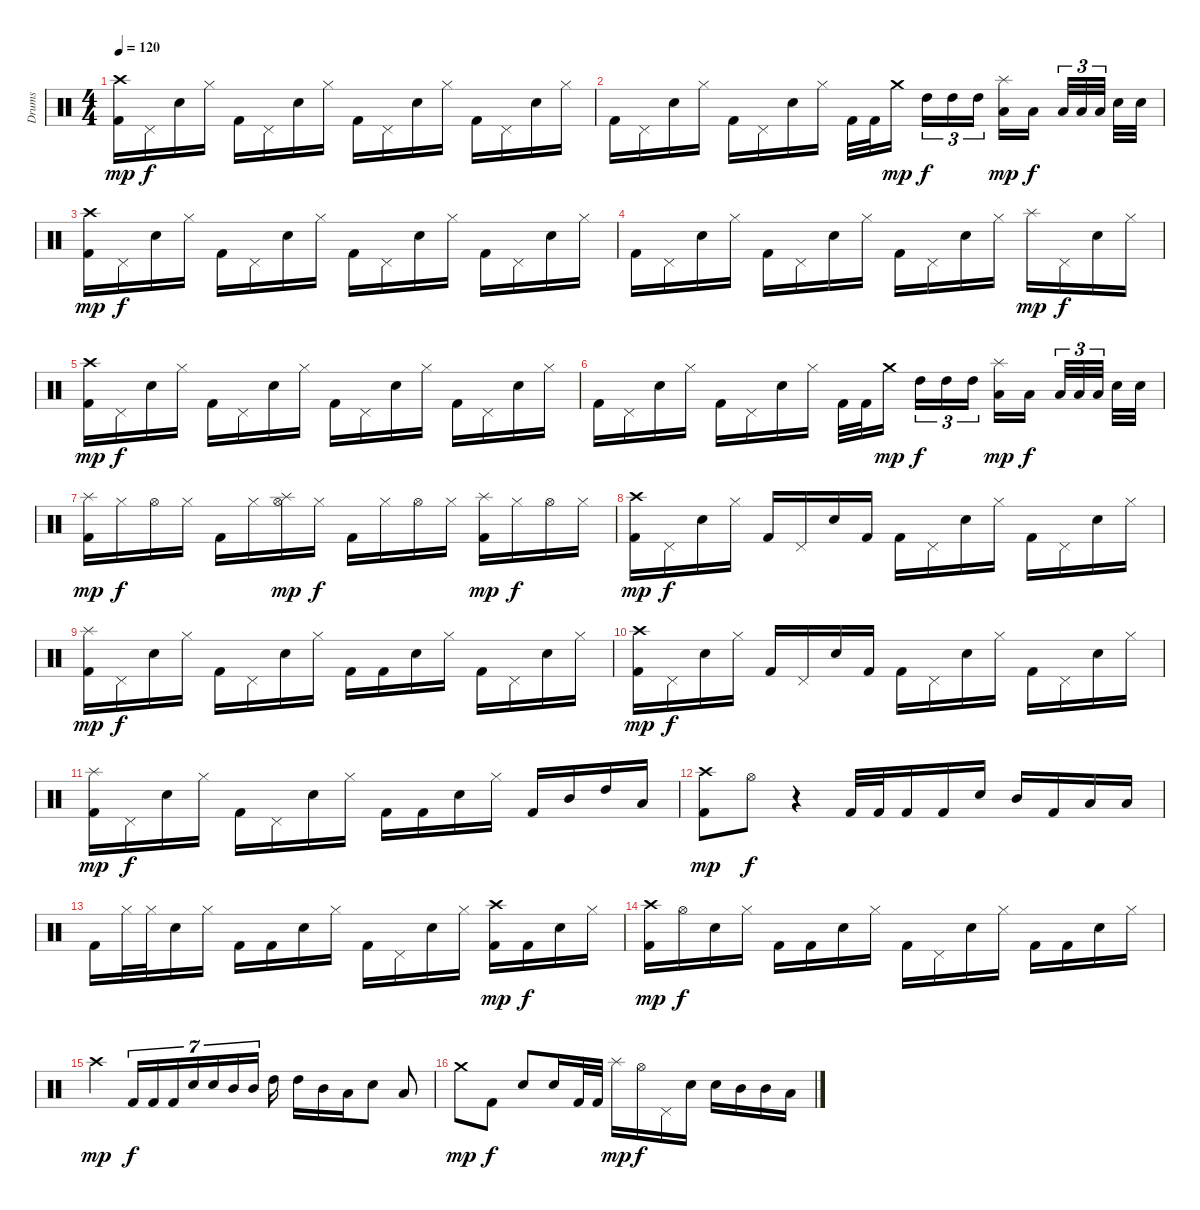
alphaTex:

\track ("Drums" "Drums") {instrument percussion}
\staff {score}
\articulation defaults
\ts (4 4)
\tempo 120
\clef neutral
\ks c
("Kick (hit) 2" "Crash high (hit)").16{dy mp} "Pedal Hi-Hat (hit)".16{dy f} "Electric Snare (hit)".16 "Hi-Hat (closed)".16 "Kick (hit) 2".16 "Pedal Hi-Hat (hit)".16 "Electric Snare (hit)".16 "Hi-Hat (closed)".16 "Kick (hit) 2".16 "Pedal Hi-Hat (hit)".16 "Electric Snare (hit)".16 "Hi-Hat (closed)".16 "Kick (hit) 2".16 "Pedal Hi-Hat (hit)".16 "Electric Snare (hit)".16 "Hi-Hat (closed)".16 |
"Kick (hit) 2".16 "Pedal Hi-Hat (hit)".16 "Electric Snare (hit)".16 "Hi-Hat (closed)".16 "Kick (hit) 2".16 "Pedal Hi-Hat (hit)".16 "Electric Snare (hit)".16 "Hi-Hat (closed)".16 "Kick (hit) 2".32 "Kick (hit) 2".32 "Crash medium (hit)".16{dy mp} "High Tom (hit)".16{tu (3 2) dy f} "High Tom (hit)".16{tu (3 2)} "High Tom (hit)".16{tu (3 2)} ("Low Tom (hit)" "Splash (hit)").16{dy mp} "Low Tom (hit)".16{dy f} "Low Floor Tom (hit)".32{tu (3 2)} "Low Floor Tom (hit)".32{tu (3 2)} "Low Floor Tom (hit)".32{tu (3 2)} "Electric Snare (hit)".32 "Electric Snare (hit)".32 |
("Kick (hit) 2" "Crash high (hit)").16{dy mp} "Pedal Hi-Hat (hit)".16{dy f} "Electric Snare (hit)".16 "Hi-Hat (closed)".16 "Kick (hit) 2".16 "Pedal Hi-Hat (hit)".16 "Electric Snare (hit)".16 "Hi-Hat (closed)".16 "Kick (hit) 2".16 "Pedal Hi-Hat (hit)".16 "Electric Snare (hit)".16 "Hi-Hat (closed)".16 "Kick (hit) 2".16 "Pedal Hi-Hat (hit)".16 "Electric Snare (hit)".16 "Hi-Hat (closed)".16 |
"Kick (hit) 2".16 "Pedal Hi-Hat (hit)".16 "Electric Snare (hit)".16 "Hi-Hat (closed)".16 "Kick (hit) 2".16 "Pedal Hi-Hat (hit)".16 "Electric Snare (hit)".16 "Hi-Hat (closed)".16 "Kick (hit) 2".16 "Pedal Hi-Hat (hit)".16 "Electric Snare (hit)".16 "Hi-Hat (closed)".16 "Splash (hit)".16{dy mp} "Pedal Hi-Hat (hit)".16{dy f} "Electric Snare (hit)".16 "Hi-Hat (closed)".16 |
("Kick (hit) 2" "Crash high (hit)").16{dy mp} "Pedal Hi-Hat (hit)".16{dy f} "Electric Snare (hit)".16 "Hi-Hat (closed)".16 "Kick (hit) 2".16 "Pedal Hi-Hat (hit)".16 "Electric Snare (hit)".16 "Hi-Hat (closed)".16 "Kick (hit) 2".16 "Pedal Hi-Hat (hit)".16 "Electric Snare (hit)".16 "Hi-Hat (closed)".16 "Kick (hit) 2".16 "Pedal Hi-Hat (hit)".16 "Electric Snare (hit)".16 "Hi-Hat (closed)".16 |
"Kick (hit) 2".16 "Pedal Hi-Hat (hit)".16 "Electric Snare (hit)".16 "Hi-Hat (closed)".16 "Kick (hit) 2".16 "Pedal Hi-Hat (hit)".16 "Electric Snare (hit)".16 "Hi-Hat (closed)".16 "Kick (hit) 2".32 "Kick (hit) 2".32 "Crash medium (hit)".16{dy mp} "High Tom (hit)".16{tu (3 2) dy f} "High Tom (hit)".16{tu (3 2)} "High Tom (hit)".16{tu (3 2)} ("Low Tom (hit)" "Splash (hit)").16{dy mp} "Low Tom (hit)".16{dy f} "Low Floor Tom (hit)".32{tu (3 2)} "Low Floor Tom (hit)".32{tu (3 2)} "Low Floor Tom (hit)".32{tu (3 2)} "Electric Snare (hit)".32 "Electric Snare (hit)".32 |
("Kick (hit) 2" "Splash (hit)").16{dy mp} "Hi-Hat (closed)".16{dy f} "Hi-Hat (open)".16 "Hi-Hat (closed)".16 "Kick (hit) 2".16 "Hi-Hat (closed)".16 ("Hi-Hat (open)" "Splash (hit)").16{dy mp} "Hi-Hat (closed)".16{dy f} "Kick (hit) 2".16 "Hi-Hat (closed)".16 "Hi-Hat (open)".16 "Hi-Hat (closed)".16 ("Kick (hit) 2" "Splash (hit)").16{dy mp} "Hi-Hat (closed)".16{dy f} "Hi-Hat (open)".16 "Hi-Hat (closed)".16 |
("Kick (hit) 2" "Crash high (hit)").16{dy mp} "Pedal Hi-Hat (hit)".16{dy f} "Electric Snare (hit)".16 "Hi-Hat (closed)".16 "Kick (hit) 2".16 "Pedal Hi-Hat (hit)".16 "Electric Snare (hit)".16 "Kick (hit) 2".16 "Kick (hit) 2".16 "Pedal Hi-Hat (hit)".16 "Electric Snare (hit)".16 "Hi-Hat (closed)".16 "Kick (hit) 2".16 "Pedal Hi-Hat (hit)".16 "Electric Snare (hit)".16 "Hi-Hat (closed)".16 |
("Kick (hit) 2" "Splash (hit)").16{dy mp} "Pedal Hi-Hat (hit)".16{dy f} "Electric Snare (hit)".16 "Hi-Hat (closed)".16 "Kick (hit) 2".16 "Pedal Hi-Hat (hit)".16 "Electric Snare (hit)".16 "Hi-Hat (closed)".16 "Kick (hit) 2".16 "Kick (hit) 2".16 "Electric Snare (hit)".16 "Hi-Hat (closed)".16 "Kick (hit) 2".16 "Pedal Hi-Hat (hit)".16 "Electric Snare (hit)".16 "Hi-Hat (closed)".16 |
("Kick (hit) 2" "Crash high (hit)").16{dy mp} "Pedal Hi-Hat (hit)".16{dy f} "Electric Snare (hit)".16 "Hi-Hat (closed)".16 "Kick (hit) 2".16 "Pedal Hi-Hat (hit)".16 "Electric Snare (hit)".16 "Kick (hit) 2".16 "Kick (hit) 2".16 "Pedal Hi-Hat (hit)".16 "Electric Snare (hit)".16 "Hi-Hat (closed)".16 "Kick (hit) 2".16 "Pedal Hi-Hat (hit)".16 "Electric Snare (hit)".16 "Hi-Hat (closed)".16 |
("Kick (hit) 2" "Splash (hit)").16{dy mp} "Pedal Hi-Hat (hit)".16{dy f} "Electric Snare (hit)".16 "Hi-Hat (closed)".16 "Kick (hit) 2".16 "Pedal Hi-Hat (hit)".16 "Electric Snare (hit)".16 "Hi-Hat (closed)".16 "Kick (hit) 2".16 "Kick (hit) 2".16 "Electric Snare (hit)".16 "Hi-Hat (closed)".16 "Kick (hit) 2".16 "Mid Tom (hit)".16 "High Tom (hit)".16 "Low Tom (hit)".16 |
("Kick (hit) 2" "Crash high (hit)").8{dy mp} "Hi-Hat (open)".8{dy f} r.4 "Kick (hit) 2".32 "Kick (hit) 2".32 "Kick (hit) 2".16 "Kick (hit) 2".16 "Electric Snare (hit)".16 "Mid Tom (hit)".16 "Kick (hit) 2".16 "Low Tom (hit)".16 "Low Tom (hit)".16 |
"Kick (hit) 2".16 "Hi-Hat (closed)".32 "Hi-Hat (closed)".32 "Electric Snare (hit)".16 "Hi-Hat (closed)".16 "Kick (hit) 2".16 "Kick (hit) 2".16 "Electric Snare (hit)".16 "Hi-Hat (closed)".16 "Kick (hit) 2".16 "Pedal Hi-Hat (hit)".16 "Electric Snare (hit)".16 "Hi-Hat (closed)".16 ("Kick (hit) 2" "Crash high (hit)").16{dy mp} "Kick (hit) 2".16{dy f} "Electric Snare (hit)".16 "Hi-Hat (closed)".16 |
("Kick (hit) 2" "Crash high (hit)").16{dy mp} "Hi-Hat (open)".16{dy f} "Electric Snare (hit)".16 "Hi-Hat (closed)".16 "Kick (hit) 2".16 "Kick (hit) 2".16 "Electric Snare (hit)".16 "Hi-Hat (closed)".16 "Kick (hit) 2".16 "Pedal Hi-Hat (hit)".16 "Electric Snare (hit)".16 "Hi-Hat (closed)".16 "Kick (hit) 2".16 "Kick (hit) 2".16 "Electric Snare (hit)".16 "Hi-Hat (closed)".16 |
"Crash high (hit)".4{dy mp} "Kick (hit) 2".16{tu (7 4) dy f} "Kick (hit) 2".16{tu (7 4)} "Kick (hit) 2".16{tu (7 4)} "Electric Snare (hit)".16{tu (7 4)} "Electric Snare (hit)".16{tu (7 4)} "Mid Tom (hit)".16{tu (7 4)} "Mid Tom (hit)".16{tu (7 4)} "High Tom (hit)".16 "High Tom (hit)".16 "Mid Tom (hit)".16 "Low Tom (hit)".16 "Electric Snare (hit)".8 "Low Tom (hit)".8 |
"Crash medium (hit)".8{dy mp} "Kick (hit) 2".8{dy f} "Electric Snare (hit)".8 "Electric Snare (hit)".16 "Kick (hit) 2".32 "Kick (hit) 2".32 "Splash (hit)".16{dy mp} "Hi-Hat (open)".16{dy f} "Pedal Hi-Hat (hit)".16 "Electric Snare (hit)".16 "Electric Snare (hit)".16 "Mid Tom (hit)".16 "Mid Tom (hit)".16 "Low Tom (hit)".16
